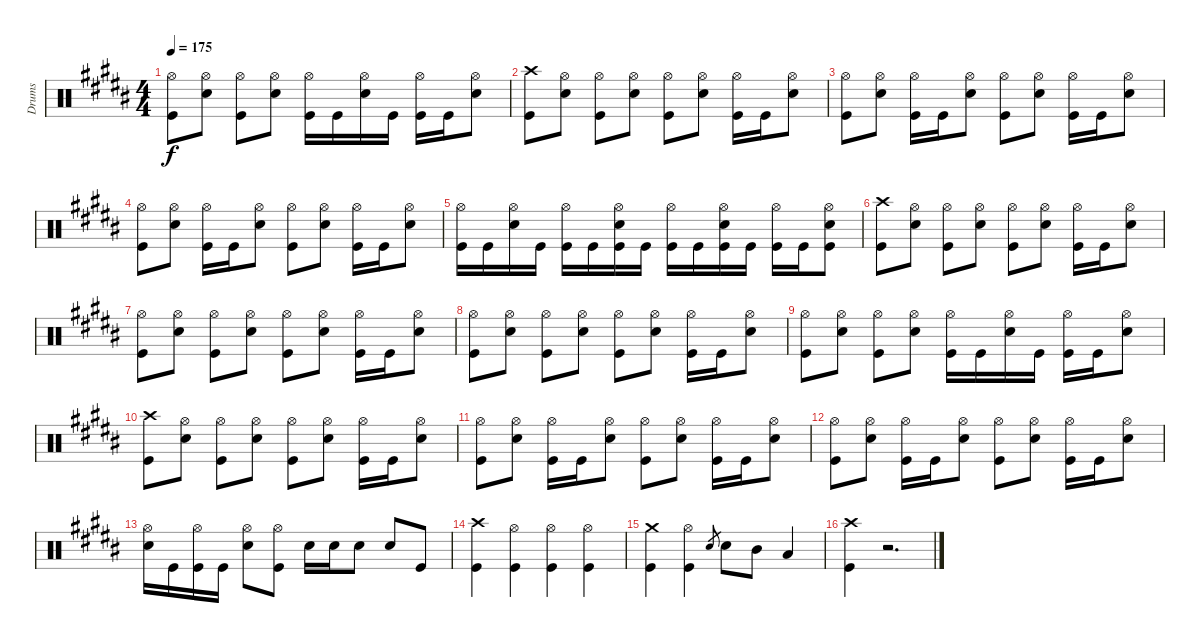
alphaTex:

\track ("Drums" "Drums") {instrument percussion}
\staff {score}
\articulation defaults
\ts (4 4)
\tempo 175
\clef neutral
\ks b
("Hi-Hat (open)" "Kick (hit)").8{dy f} ("Hi-Hat (open)" "Snare (hit) 2").8 ("Hi-Hat (open)" "Kick (hit)").8 ("Hi-Hat (open)" "Snare (hit) 2").8 ("Hi-Hat (open)" "Kick (hit)").16 "Kick (hit)".16 ("Hi-Hat (open)" "Snare (hit) 2").16 "Kick (hit)".16 ("Hi-Hat (open)" "Kick (hit)").16 "Kick (hit)".16 ("Hi-Hat (open)" "Snare (hit) 2").8 |
("Crash high (hit)" "Kick (hit)").8 ("Hi-Hat (open)" "Snare (hit) 2").8 ("Hi-Hat (open)" "Kick (hit)").8 ("Hi-Hat (open)" "Snare (hit) 2").8 ("Hi-Hat (open)" "Kick (hit)").8 ("Hi-Hat (open)" "Snare (hit) 2").8 ("Hi-Hat (open)" "Kick (hit)").16 "Kick (hit)".16 ("Hi-Hat (open)" "Snare (hit) 2").8 |
("Hi-Hat (open)" "Kick (hit)").8 ("Hi-Hat (open)" "Snare (hit) 2").8 ("Hi-Hat (open)" "Kick (hit)").16 "Kick (hit)".16 ("Hi-Hat (open)" "Snare (hit) 2").8 ("Hi-Hat (open)" "Kick (hit)").8 ("Hi-Hat (open)" "Snare (hit) 2").8 ("Hi-Hat (open)" "Kick (hit)").16 "Kick (hit)".16 ("Hi-Hat (open)" "Snare (hit) 2").8 |
("Hi-Hat (open)" "Kick (hit)").8 ("Hi-Hat (open)" "Snare (hit) 2").8 ("Hi-Hat (open)" "Kick (hit)").16 "Kick (hit)".16 ("Hi-Hat (open)" "Snare (hit) 2").8 ("Hi-Hat (open)" "Kick (hit)").8 ("Hi-Hat (open)" "Snare (hit) 2").8 ("Hi-Hat (open)" "Kick (hit)").16 "Kick (hit)".16 ("Hi-Hat (open)" "Snare (hit) 2").8 |
("Hi-Hat (open)" "Kick (hit)").16 "Kick (hit)".16 ("Hi-Hat (open)" "Snare (hit) 2").16 "Kick (hit)".16 ("Hi-Hat (open)" "Kick (hit)").16 "Kick (hit)".16 ("Hi-Hat (open)" "Kick (hit)" "Snare (hit) 2").16 "Kick (hit)".16 ("Hi-Hat (open)" "Kick (hit)").16 "Kick (hit)".16 ("Hi-Hat (open)" "Kick (hit)" "Snare (hit) 2").16 "Kick (hit)".16 ("Hi-Hat (open)" "Kick (hit)").16 "Kick (hit)".16 ("Hi-Hat (open)" "Kick (hit)" "Snare (hit) 2").8 |
("Crash high (hit)" "Kick (hit)").8 ("Hi-Hat (open)" "Snare (hit) 2").8 ("Hi-Hat (open)" "Kick (hit)").8 ("Hi-Hat (open)" "Snare (hit) 2").8 ("Hi-Hat (open)" "Kick (hit)").8 ("Hi-Hat (open)" "Snare (hit) 2").8 ("Hi-Hat (open)" "Kick (hit)").16 "Kick (hit)".16 ("Hi-Hat (open)" "Snare (hit) 2").8 |
("Hi-Hat (open)" "Kick (hit)").8 ("Hi-Hat (open)" "Snare (hit) 2").8 ("Hi-Hat (open)" "Kick (hit)").8 ("Hi-Hat (open)" "Snare (hit) 2").8 ("Hi-Hat (open)" "Kick (hit)").8 ("Hi-Hat (open)" "Snare (hit) 2").8 ("Hi-Hat (open)" "Kick (hit)").16 "Kick (hit)".16 ("Hi-Hat (open)" "Snare (hit) 2").8 |
("Hi-Hat (open)" "Kick (hit)").8 ("Hi-Hat (open)" "Snare (hit) 2").8 ("Hi-Hat (open)" "Kick (hit)").8 ("Hi-Hat (open)" "Snare (hit) 2").8 ("Hi-Hat (open)" "Kick (hit)").8 ("Hi-Hat (open)" "Snare (hit) 2").8 ("Hi-Hat (open)" "Kick (hit)").16 "Kick (hit)".16 ("Hi-Hat (open)" "Snare (hit) 2").8 |
("Hi-Hat (open)" "Kick (hit)").8 ("Hi-Hat (open)" "Snare (hit) 2").8 ("Hi-Hat (open)" "Kick (hit)").8 ("Hi-Hat (open)" "Snare (hit) 2").8 ("Hi-Hat (open)" "Kick (hit)").16 "Kick (hit)".16 ("Hi-Hat (open)" "Snare (hit) 2").16 "Kick (hit)".16 ("Hi-Hat (open)" "Kick (hit)").16 "Kick (hit)".16 ("Hi-Hat (open)" "Snare (hit) 2").8 |
("Crash high (hit)" "Kick (hit)").8 ("Hi-Hat (open)" "Snare (hit) 2").8 ("Hi-Hat (open)" "Kick (hit)").8 ("Hi-Hat (open)" "Snare (hit) 2").8 ("Hi-Hat (open)" "Kick (hit)").8 ("Hi-Hat (open)" "Snare (hit) 2").8 ("Hi-Hat (open)" "Kick (hit)").16 "Kick (hit)".16 ("Hi-Hat (open)" "Snare (hit) 2").8 |
("Hi-Hat (open)" "Kick (hit)").8 ("Hi-Hat (open)" "Snare (hit) 2").8 ("Hi-Hat (open)" "Kick (hit)").16 "Kick (hit)".16 ("Hi-Hat (open)" "Snare (hit) 2").8 ("Hi-Hat (open)" "Kick (hit)").8 ("Hi-Hat (open)" "Snare (hit) 2").8 ("Hi-Hat (open)" "Kick (hit)").16 "Kick (hit)".16 ("Hi-Hat (open)" "Snare (hit) 2").8 |
("Hi-Hat (open)" "Kick (hit)").8 ("Hi-Hat (open)" "Snare (hit) 2").8 ("Hi-Hat (open)" "Kick (hit)").16 "Kick (hit)".16 ("Hi-Hat (open)" "Snare (hit) 2").8 ("Hi-Hat (open)" "Kick (hit)").8 ("Hi-Hat (open)" "Snare (hit) 2").8 ("Hi-Hat (open)" "Kick (hit)").16 "Kick (hit)".16 ("Hi-Hat (open)" "Snare (hit) 2").8 |
("Hi-Hat (open)" "Snare (hit) 2").16 "Kick (hit)".16 ("Hi-Hat (open)" "Kick (hit)").16 "Kick (hit)".16 ("Hi-Hat (open)" "Snare (hit) 2").8 ("Hi-Hat (open)" "Kick (hit)").8 "Snare (hit) 2".16 "Snare (hit) 2".16 "Snare (hit) 2".8 "Snare (hit) 2".8 "Kick (hit)".8 |
("Crash high (hit)" "Kick (hit)").4 ("Hi-Hat (open)" "Kick (hit)").4 ("Hi-Hat (open)" "Kick (hit)").4 ("Hi-Hat (open)" "Kick (hit)").4 |
("Crash medium (hit)" "Kick (hit)").4 ("Hi-Hat (open)" "Kick (hit)").4 "Snare (hit) 2".8{gr} "Snare (hit) 2".8 "Mid Tom (hit)".8 "Low Tom (hit)".4 |
("Crash high (hit)" "Kick (hit)").4 r.2{d}
